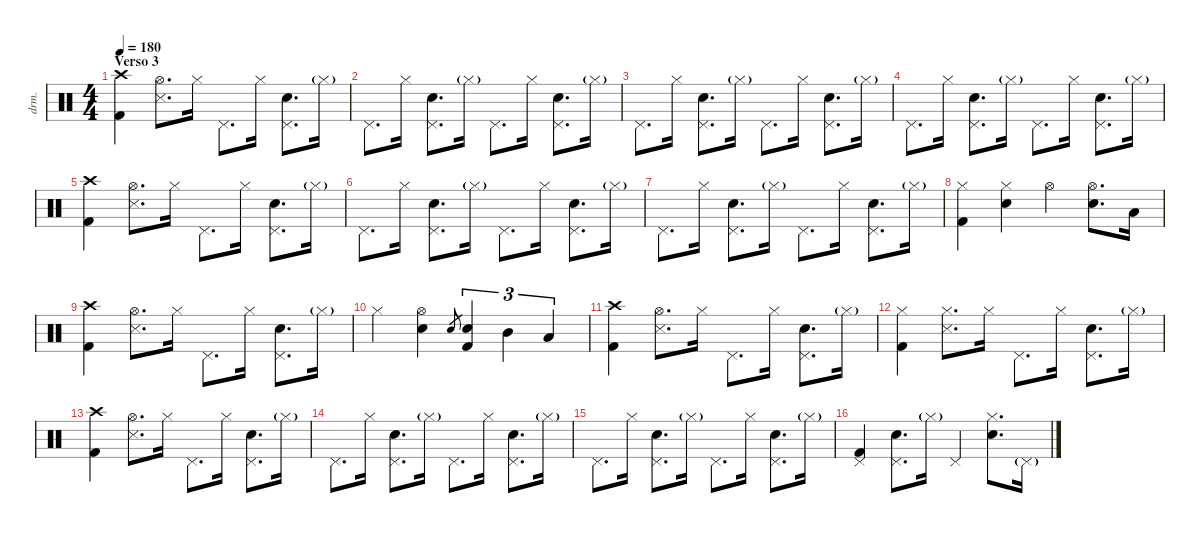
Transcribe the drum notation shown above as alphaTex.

\defaultSystemsLayout 4
\hideDynamics
\bracketExtendMode nobrackets
\otherSystemsTrackNameOrientation horizontal
\track ("Drums" "drm.") {instrument percussion}
\staff {score}
\articulation defaults
\ts (4 4)
\section ("" "Verso 3")
\tempo 180
\clef neutral
\ks c
("Crash high (hit)" "Kick (hit) 2").4{dy f} ("Hi-Hat (open)" "Snare (side stick) 3").8{d} "Hi-Hat (closed)".16 "Pedal Hi-Hat (hit)".8{d} "Hi-Hat (closed)".16 ("Pedal Hi-Hat (hit)" "Snare (hit) 2").8{d} "Hi-Hat (closed)"{g}.16{dy mf} |
"Pedal Hi-Hat (hit)".8{d dy f} "Hi-Hat (closed)".16 ("Pedal Hi-Hat (hit)" "Snare (hit) 2").8{d} "Hi-Hat (closed)"{g}.16{dy mf} "Pedal Hi-Hat (hit)".8{d dy f} "Hi-Hat (closed)".16 ("Pedal Hi-Hat (hit)" "Snare (hit) 2").8{d} "Hi-Hat (closed)"{g}.16{dy mf} |
"Pedal Hi-Hat (hit)".8{d dy f} "Hi-Hat (closed)".16 ("Pedal Hi-Hat (hit)" "Snare (hit) 2").8{d} "Hi-Hat (closed)"{g}.16{dy mf} "Pedal Hi-Hat (hit)".8{d dy f} "Hi-Hat (closed)".16 ("Pedal Hi-Hat (hit)" "Snare (hit) 2").8{d} "Hi-Hat (closed)"{g}.16{dy mf} |
"Pedal Hi-Hat (hit)".8{d dy f} "Hi-Hat (closed)".16 ("Pedal Hi-Hat (hit)" "Snare (hit) 2").8{d} "Hi-Hat (closed)"{g}.16{dy mf} "Pedal Hi-Hat (hit)".8{d dy f} "Hi-Hat (closed)".16 ("Pedal Hi-Hat (hit)" "Snare (hit) 2").8{d} "Hi-Hat (closed)"{g}.16{dy mf} |
("Crash high (hit)" "Kick (hit) 2").4{dy f} ("Hi-Hat (open)" "Snare (side stick) 3").8{d} "Hi-Hat (closed)".16 "Pedal Hi-Hat (hit)".8{d} "Hi-Hat (closed)".16 ("Pedal Hi-Hat (hit)" "Snare (hit) 2").8{d} "Hi-Hat (closed)"{g}.16{dy mf} |
"Pedal Hi-Hat (hit)".8{d dy f} "Hi-Hat (closed)".16 ("Pedal Hi-Hat (hit)" "Snare (hit) 2").8{d} "Hi-Hat (closed)"{g}.16{dy mf} "Pedal Hi-Hat (hit)".8{d dy f} "Hi-Hat (closed)".16 ("Pedal Hi-Hat (hit)" "Snare (hit) 2").8{d} "Hi-Hat (closed)"{g}.16{dy mf} |
"Pedal Hi-Hat (hit)".8{d dy f} "Hi-Hat (closed)".16 ("Pedal Hi-Hat (hit)" "Snare (hit) 2").8{d} "Hi-Hat (closed)"{g}.16{dy mf} "Pedal Hi-Hat (hit)".8{d dy f} "Hi-Hat (closed)".16 ("Pedal Hi-Hat (hit)" "Snare (hit) 2").8{d} "Hi-Hat (closed)"{g}.16{dy mf} |
("Hi-Hat (closed)" "Kick (hit) 2").4{dy f} ("Hi-Hat (closed)" "Snare (hit) 2").4 "Hi-Hat (open)".4 ("Hi-Hat (open)" "Snare (hit) 2").8{d} "Low Tom (hit)".16 |
("Crash high (hit)" "Kick (hit) 2").4 ("Hi-Hat (open)" "Snare (side stick) 3").8{d} "Hi-Hat (closed)".16 "Pedal Hi-Hat (hit)".8{d} "Hi-Hat (closed)".16 ("Pedal Hi-Hat (hit)" "Snare (hit) 2").8{d} "Hi-Hat (closed)"{g}.16{dy mf} |
"Hi-Hat (closed)".4{dy f} ("Hi-Hat (open)" "Snare (hit) 2").4 "Snare (hit) 2".8{gr dy mf} ("Snare (hit) 2" "Kick (hit) 2").4{tu (3 2) dy f} "Mid Tom (hit)".4{tu (3 2)} "Low Tom (hit)".4{tu (3 2)} |
("Crash high (hit)" "Kick (hit) 2").4 ("Hi-Hat (open)" "Snare (side stick) 3").8{d} "Hi-Hat (closed)".16 "Pedal Hi-Hat (hit)".8{d} "Hi-Hat (closed)".16 ("Pedal Hi-Hat (hit)" "Snare (hit) 2").8{d} "Hi-Hat (closed)"{g}.16{dy mf} |
("Hi-Hat (closed)" "Kick (hit) 2").4{dy f} ("Hi-Hat (closed)" "Snare (side stick) 3").8{d} "Hi-Hat (closed)".16 "Pedal Hi-Hat (hit)".8{d} "Hi-Hat (closed)".16 ("Pedal Hi-Hat (hit)" "Snare (hit) 2").8{d} "Hi-Hat (closed)"{g}.16{dy mf} |
("Crash high (hit)" "Kick (hit) 2").4{dy f} ("Hi-Hat (open)" "Snare (side stick) 3").8{d} "Hi-Hat (closed)".16 "Pedal Hi-Hat (hit)".8{d} "Hi-Hat (closed)".16 ("Pedal Hi-Hat (hit)" "Snare (hit) 2").8{d} "Hi-Hat (closed)"{g}.16{dy mf} |
"Pedal Hi-Hat (hit)".8{d dy f} "Hi-Hat (closed)".16 ("Pedal Hi-Hat (hit)" "Snare (hit) 2").8{d} "Hi-Hat (closed)"{g}.16{dy mf} "Pedal Hi-Hat (hit)".8{d dy f} "Hi-Hat (closed)".16 ("Pedal Hi-Hat (hit)" "Snare (hit) 2").8{d} "Hi-Hat (closed)"{g}.16{dy mf} |
"Pedal Hi-Hat (hit)".8{d dy f} "Hi-Hat (closed)".16 ("Pedal Hi-Hat (hit)" "Snare (hit) 2").8{d} "Hi-Hat (closed)"{g}.16{dy mf} "Pedal Hi-Hat (hit)".8{d dy f} "Hi-Hat (closed)".16 ("Pedal Hi-Hat (hit)" "Snare (hit) 2").8{d} "Hi-Hat (closed)"{g}.16{dy mf} |
("Pedal Hi-Hat (hit)" "Kick (hit) 2").4{dy f} ("Pedal Hi-Hat (hit)" "Snare (hit) 2").8{d} "Hi-Hat (closed)"{g}.16{dy mf} "Pedal Hi-Hat (hit)".4{dy f} ("Hi-Hat (closed)" "Snare (hit) 2").8{d} "Pedal Hi-Hat (hit)"{g}.16{dy mf}
